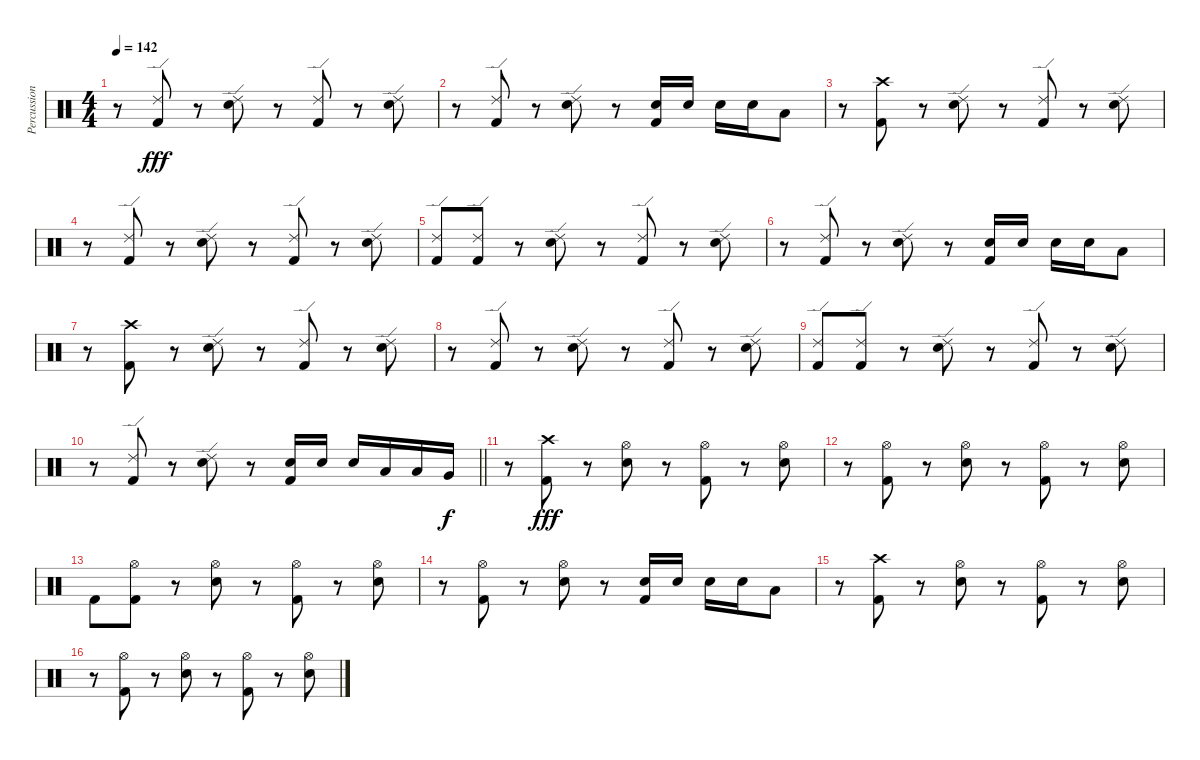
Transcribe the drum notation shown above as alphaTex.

\track ("Percussion" "Percussion") {instrument percussion}
\staff {score}
\articulation defaults
\ts (4 4)
\tempo 142
\clef neutral
\ks c
r.8{dy fff} ("Ride (edge) 2" "Kick (hit) 2").8 r.8 ("Ride (edge) 2" "Electric Snare (hit)").8 r.8 ("Ride (edge) 2" "Kick (hit) 2").8 r.8 ("Ride (edge) 2" "Electric Snare (hit)").8 |
r.8 ("Ride (edge) 2" "Kick (hit) 2").8 r.8 ("Ride (edge) 2" "Electric Snare (hit)").8 r.8 ("Electric Snare (hit)" "Kick (hit) 2").16 "Electric Snare (hit)".16 "Electric Snare (hit)".16 "Electric Snare (hit)".16 "Low Tom (hit)".8 |
r.8 ("Crash high (hit)" "Kick (hit) 2").8 r.8 ("Ride (edge) 2" "Electric Snare (hit)").8 r.8 ("Ride (edge) 2" "Kick (hit) 2").8 r.8 ("Ride (edge) 2" "Electric Snare (hit)").8 |
r.8 ("Ride (edge) 2" "Kick (hit) 2").8 r.8 ("Ride (edge) 2" "Electric Snare (hit)").8 r.8 ("Ride (edge) 2" "Kick (hit) 2").8 r.8 ("Ride (edge) 2" "Electric Snare (hit)").8 |
("Ride (edge) 2" "Kick (hit) 2").8 ("Ride (edge) 2" "Kick (hit) 2").8 r.8 ("Ride (edge) 2" "Electric Snare (hit)").8 r.8 ("Ride (edge) 2" "Kick (hit) 2").8 r.8 ("Ride (edge) 2" "Electric Snare (hit)").8 |
r.8 ("Ride (edge) 2" "Kick (hit) 2").8 r.8 ("Ride (edge) 2" "Electric Snare (hit)").8 r.8 ("Electric Snare (hit)" "Kick (hit) 2").16 "Electric Snare (hit)".16 "Electric Snare (hit)".16 "Electric Snare (hit)".16 "Low Tom (hit)".8 |
r.8 ("Crash high (hit)" "Kick (hit) 2").8 r.8 ("Ride (edge) 2" "Electric Snare (hit)").8 r.8 ("Ride (edge) 2" "Kick (hit) 2").8 r.8 ("Ride (edge) 2" "Electric Snare (hit)").8 |
r.8 ("Ride (edge) 2" "Kick (hit) 2").8 r.8 ("Ride (edge) 2" "Electric Snare (hit)").8 r.8 ("Ride (edge) 2" "Kick (hit) 2").8 r.8 ("Ride (edge) 2" "Electric Snare (hit)").8 |
("Ride (edge) 2" "Kick (hit) 2").8 ("Ride (edge) 2" "Kick (hit) 2").8 r.8 ("Ride (edge) 2" "Electric Snare (hit)").8 r.8 ("Ride (edge) 2" "Kick (hit) 2").8 r.8 ("Ride (edge) 2" "Electric Snare (hit)").8 |
\barLineRight lightlight
r.8 ("Ride (edge) 2" "Kick (hit) 2").8 r.8 ("Ride (edge) 2" "Electric Snare (hit)").8 r.8 ("Electric Snare (hit)" "Kick (hit) 2").16 "Electric Snare (hit)".16 "Electric Snare (hit)".16 "Low Tom (hit)".16 "Low Tom (hit)".16 "Very Low Tom (hit)".16{dy f} |
\section ("" "")
r.8 ("Crash high (hit)" "Kick (hit) 2").8{dy fff} r.8 ("Hi-Hat (open)" "Electric Snare (hit)").8 r.8 ("Hi-Hat (open)" "Kick (hit) 2").8 r.8 ("Hi-Hat (open)" "Electric Snare (hit)").8 |
r.8 ("Hi-Hat (open)" "Kick (hit) 2").8 r.8 ("Hi-Hat (open)" "Electric Snare (hit)").8 r.8 ("Hi-Hat (open)" "Kick (hit) 2").8 r.8 ("Hi-Hat (open)" "Electric Snare (hit)").8 |
"Kick (hit) 2".8 ("Hi-Hat (open)" "Kick (hit) 2").8 r.8 ("Hi-Hat (open)" "Electric Snare (hit)").8 r.8 ("Hi-Hat (open)" "Kick (hit) 2").8 r.8 ("Hi-Hat (open)" "Electric Snare (hit)").8 |
r.8 ("Hi-Hat (open)" "Kick (hit) 2").8 r.8 ("Hi-Hat (open)" "Electric Snare (hit)").8 r.8 ("Electric Snare (hit)" "Kick (hit) 2").16 "Electric Snare (hit)".16 "Electric Snare (hit)".16 "Electric Snare (hit)".16 "Low Tom (hit)".8 |
r.8 ("Crash high (hit)" "Kick (hit) 2").8 r.8 ("Hi-Hat (open)" "Electric Snare (hit)").8 r.8 ("Hi-Hat (open)" "Kick (hit) 2").8 r.8 ("Hi-Hat (open)" "Electric Snare (hit)").8 |
r.8 ("Hi-Hat (open)" "Kick (hit) 2").8 r.8 ("Hi-Hat (open)" "Electric Snare (hit)").8 r.8 ("Hi-Hat (open)" "Kick (hit) 2").8 r.8 ("Hi-Hat (open)" "Electric Snare (hit)").8
